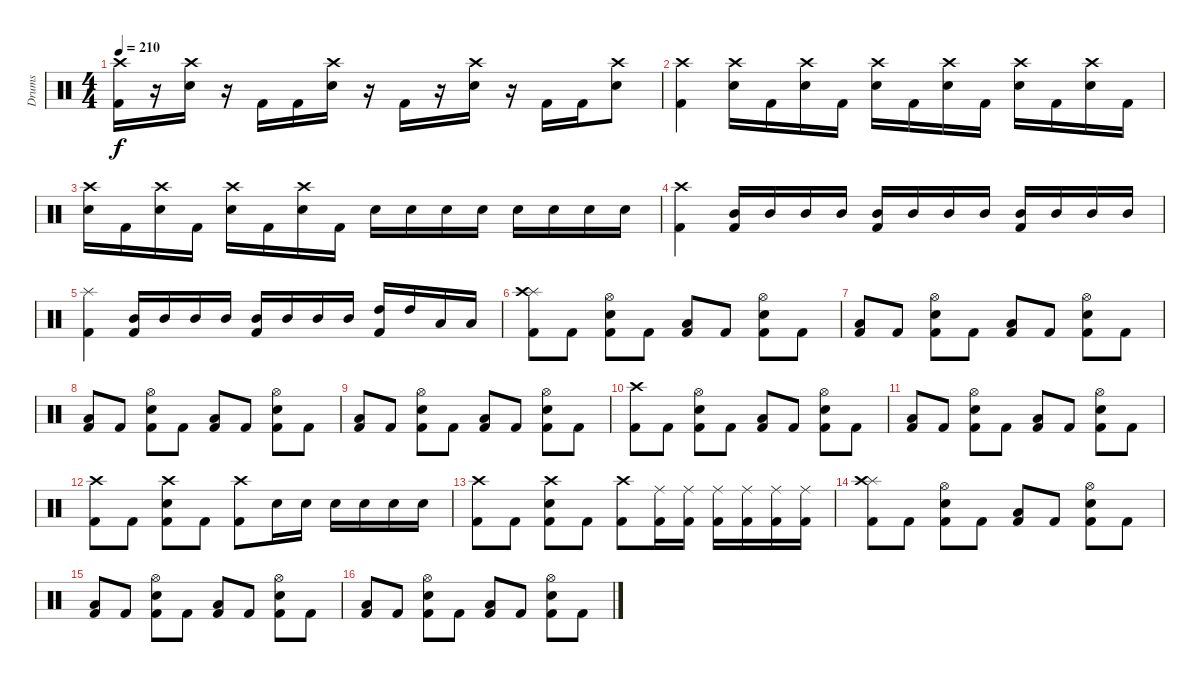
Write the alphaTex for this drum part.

\track ("Drums" "Drums") {instrument percussion}
\staff {score}
\articulation defaults
\ts (4 4)
\tempo 210
\clef neutral
\ks c
("Crash high (hit)" "Kick (hit) 2").16{dy f} r.16 ("Crash high (hit)" "Snare (hit) 2").16 r.16 "Kick (hit) 2".16 "Kick (hit) 2".16 ("Crash high (hit)" "Snare (hit) 2").16 r.16 "Kick (hit) 2".16 r.16 ("Crash high (hit)" "Snare (hit) 2").16 r.16 "Kick (hit) 2".16 "Kick (hit) 2".16 ("Crash high (hit)" "Snare (hit) 2").8 |
("Crash high (hit)" "Kick (hit) 2").4 ("Crash high (hit)" "Snare (hit) 2").16 "Kick (hit) 2".16 ("Crash high (hit)" "Snare (hit) 2").16 "Kick (hit) 2".16 ("Crash high (hit)" "Snare (hit) 2").16 "Kick (hit) 2".16 ("Crash high (hit)" "Snare (hit) 2").16 "Kick (hit) 2".16 ("Crash high (hit)" "Snare (hit) 2").16 "Kick (hit) 2".16 ("Crash high (hit)" "Snare (hit) 2").16 "Kick (hit) 2".16 |
("Crash high (hit)" "Snare (hit) 2").16 "Kick (hit) 2".16 ("Crash high (hit)" "Snare (hit) 2").16 "Kick (hit) 2".16 ("Crash high (hit)" "Snare (hit) 2").16 "Kick (hit) 2".16 ("Crash high (hit)" "Snare (hit) 2").16 "Kick (hit) 2".16 "Snare (hit) 2".16 "Snare (hit) 2".16 "Snare (hit) 2".16 "Snare (hit) 2".16 "Snare (hit) 2".16 "Snare (hit) 2".16 "Snare (hit) 2".16 "Snare (hit) 2".16 |
("Crash high (hit)" "Kick (hit) 2").4 ("Mid Tom (hit)" "Kick (hit) 2").16 "Mid Tom (hit)".16 "Mid Tom (hit)".16 "Mid Tom (hit)".16 ("Mid Tom (hit)" "Kick (hit) 2").16 "Mid Tom (hit)".16 "Mid Tom (hit)".16 "Mid Tom (hit)".16 ("Mid Tom (hit)" "Kick (hit) 2").16 "Mid Tom (hit)".16 "Mid Tom (hit)".16 "Mid Tom (hit)".16 |
("Splash (hit)" "Kick (hit) 2").4 ("Mid Tom (hit)" "Kick (hit) 2").16 "Mid Tom (hit)".16 "Mid Tom (hit)".16 "Mid Tom (hit)".16 ("Mid Tom (hit)" "Kick (hit) 2").16 "Mid Tom (hit)".16 "Mid Tom (hit)".16 "Mid Tom (hit)".16 ("High Tom (hit)" "Kick (hit) 2").16 "High Tom (hit)".16 "Low Tom (hit)".16 "Low Tom (hit)".16 |
("Splash (hit)" "Crash high (hit)" "Kick (hit) 2").8 "Kick (hit) 2".8 ("Hi-Hat (open)" "Snare (hit) 2" "Kick (hit) 2").8 "Kick (hit) 2".8 ("Low Tom (hit)" "Kick (hit) 2").8 "Kick (hit) 2".8 ("Hi-Hat (open)" "Snare (hit) 2" "Kick (hit) 2").8 "Kick (hit) 2".8 |
("Low Tom (hit)" "Kick (hit) 2").8 "Kick (hit) 2".8 ("Hi-Hat (open)" "Snare (hit) 2" "Kick (hit) 2").8 "Kick (hit) 2".8 ("Low Tom (hit)" "Kick (hit) 2").8 "Kick (hit) 2".8 ("Hi-Hat (open)" "Snare (hit) 2" "Kick (hit) 2").8 "Kick (hit) 2".8 |
("Low Tom (hit)" "Kick (hit) 2").8 "Kick (hit) 2".8 ("Hi-Hat (open)" "Snare (hit) 2" "Kick (hit) 2").8 "Kick (hit) 2".8 ("Low Tom (hit)" "Kick (hit) 2").8 "Kick (hit) 2".8 ("Hi-Hat (open)" "Snare (hit) 2" "Kick (hit) 2").8 "Kick (hit) 2".8 |
("Low Tom (hit)" "Kick (hit) 2").8 "Kick (hit) 2".8 ("Hi-Hat (open)" "Snare (hit) 2" "Kick (hit) 2").8 "Kick (hit) 2".8 ("Low Tom (hit)" "Kick (hit) 2").8 "Kick (hit) 2".8 ("Hi-Hat (open)" "Snare (hit) 2" "Kick (hit) 2").8 "Kick (hit) 2".8 |
("Crash high (hit)" "Kick (hit) 2").8 "Kick (hit) 2".8 ("Hi-Hat (open)" "Snare (hit) 2" "Kick (hit) 2").8 "Kick (hit) 2".8 ("Low Tom (hit)" "Kick (hit) 2").8 "Kick (hit) 2".8 ("Hi-Hat (open)" "Snare (hit) 2" "Kick (hit) 2").8 "Kick (hit) 2".8 |
("Low Tom (hit)" "Kick (hit) 2").8 "Kick (hit) 2".8 ("Hi-Hat (open)" "Snare (hit) 2" "Kick (hit) 2").8 "Kick (hit) 2".8 ("Low Tom (hit)" "Kick (hit) 2").8 "Kick (hit) 2".8 ("Hi-Hat (open)" "Snare (hit) 2" "Kick (hit) 2").8 "Kick (hit) 2".8 |
("Crash high (hit)" "Kick (hit) 2").8 "Kick (hit) 2".8 ("Crash high (hit)" "Snare (hit) 2" "Kick (hit) 2").8 "Kick (hit) 2".8 ("Crash high (hit)" "Kick (hit) 2").8 "Snare (hit) 2".16 "Snare (hit) 2".16 "Snare (hit) 2".16 "Snare (hit) 2".16 "Snare (hit) 2".16 "Snare (hit) 2".16 |
("Crash high (hit)" "Kick (hit) 2").8 "Kick (hit) 2".8 ("Crash high (hit)" "Snare (hit) 2" "Kick (hit) 2").8 "Kick (hit) 2".8 ("Crash high (hit)" "Kick (hit) 2").8 ("Ride (middle)" "Kick (hit) 2").16 ("Ride (middle)" "Kick (hit) 2").16 ("Ride (middle)" "Kick (hit) 2").16 ("Ride (middle)" "Kick (hit) 2").16 ("Ride (middle)" "Kick (hit) 2").16 ("Ride (middle)" "Kick (hit) 2").16 |
("Splash (hit)" "Crash high (hit)" "Kick (hit) 2").8 "Kick (hit) 2".8 ("Hi-Hat (open)" "Snare (hit) 2" "Kick (hit) 2").8 "Kick (hit) 2".8 ("Low Tom (hit)" "Kick (hit) 2").8 "Kick (hit) 2".8 ("Hi-Hat (open)" "Snare (hit) 2" "Kick (hit) 2").8 "Kick (hit) 2".8 |
("Low Tom (hit)" "Kick (hit) 2").8 "Kick (hit) 2".8 ("Hi-Hat (open)" "Snare (hit) 2" "Kick (hit) 2").8 "Kick (hit) 2".8 ("Low Tom (hit)" "Kick (hit) 2").8 "Kick (hit) 2".8 ("Hi-Hat (open)" "Snare (hit) 2" "Kick (hit) 2").8 "Kick (hit) 2".8 |
("Low Tom (hit)" "Kick (hit) 2").8 "Kick (hit) 2".8 ("Hi-Hat (open)" "Snare (hit) 2" "Kick (hit) 2").8 "Kick (hit) 2".8 ("Low Tom (hit)" "Kick (hit) 2").8 "Kick (hit) 2".8 ("Hi-Hat (open)" "Snare (hit) 2" "Kick (hit) 2").8 "Kick (hit) 2".8
